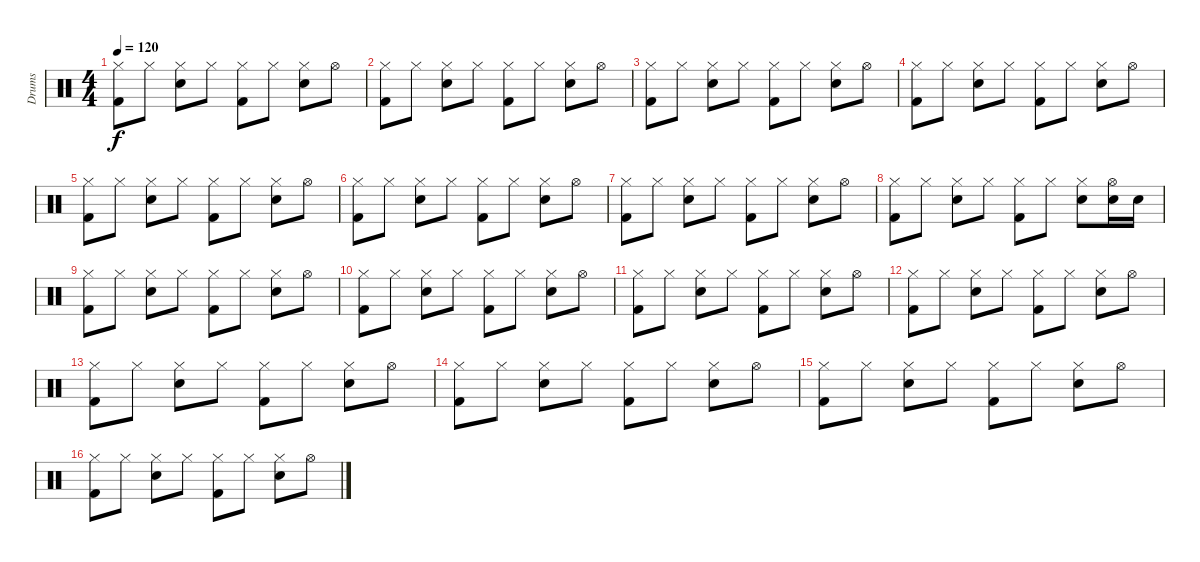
\track ("Drums" "Drums") {instrument percussion}
\staff {score}
\articulation defaults
\ts (4 4)
\tempo 120
\clef neutral
\ks c
("Hi-Hat (closed)" "Kick (hit) 2").8{dy f} "Hi-Hat (closed)".8 ("Hi-Hat (closed)" "Electric Snare (hit)").8 "Hi-Hat (closed)".8 ("Hi-Hat (closed)" "Kick (hit) 2").8 "Hi-Hat (closed)".8 ("Hi-Hat (closed)" "Electric Snare (hit)").8 "Hi-Hat (open)".8 |
("Hi-Hat (closed)" "Kick (hit) 2").8 "Hi-Hat (closed)".8 ("Hi-Hat (closed)" "Electric Snare (hit)").8 "Hi-Hat (closed)".8 ("Hi-Hat (closed)" "Kick (hit) 2").8 "Hi-Hat (closed)".8 ("Hi-Hat (closed)" "Electric Snare (hit)").8 "Hi-Hat (open)".8 |
("Hi-Hat (closed)" "Kick (hit) 2").8 "Hi-Hat (closed)".8 ("Hi-Hat (closed)" "Electric Snare (hit)").8 "Hi-Hat (closed)".8 ("Hi-Hat (closed)" "Kick (hit) 2").8 "Hi-Hat (closed)".8 ("Hi-Hat (closed)" "Electric Snare (hit)").8 "Hi-Hat (open)".8 |
("Hi-Hat (closed)" "Kick (hit) 2").8 "Hi-Hat (closed)".8 ("Hi-Hat (closed)" "Electric Snare (hit)").8 "Hi-Hat (closed)".8 ("Hi-Hat (closed)" "Kick (hit) 2").8 "Hi-Hat (closed)".8 ("Hi-Hat (closed)" "Electric Snare (hit)").8 "Hi-Hat (open)".8 |
("Hi-Hat (closed)" "Kick (hit) 2").8 "Hi-Hat (closed)".8 ("Hi-Hat (closed)" "Electric Snare (hit)").8 "Hi-Hat (closed)".8 ("Hi-Hat (closed)" "Kick (hit) 2").8 "Hi-Hat (closed)".8 ("Hi-Hat (closed)" "Electric Snare (hit)").8 "Hi-Hat (open)".8 |
("Hi-Hat (closed)" "Kick (hit) 2").8 "Hi-Hat (closed)".8 ("Hi-Hat (closed)" "Electric Snare (hit)").8 "Hi-Hat (closed)".8 ("Hi-Hat (closed)" "Kick (hit) 2").8 "Hi-Hat (closed)".8 ("Hi-Hat (closed)" "Electric Snare (hit)").8 "Hi-Hat (open)".8 |
("Hi-Hat (closed)" "Kick (hit) 2").8 "Hi-Hat (closed)".8 ("Hi-Hat (closed)" "Electric Snare (hit)").8 "Hi-Hat (closed)".8 ("Hi-Hat (closed)" "Kick (hit) 2").8 "Hi-Hat (closed)".8 ("Hi-Hat (closed)" "Electric Snare (hit)").8 "Hi-Hat (open)".8 |
("Hi-Hat (closed)" "Kick (hit) 2").8 "Hi-Hat (closed)".8 ("Hi-Hat (closed)" "Electric Snare (hit)").8 "Hi-Hat (closed)".8 ("Hi-Hat (closed)" "Kick (hit) 2").8 "Hi-Hat (closed)".8 ("Hi-Hat (closed)" "Electric Snare (hit)").8 ("Electric Snare (hit)" "Hi-Hat (open)").16 "Electric Snare (hit)".16 |
("Hi-Hat (closed)" "Kick (hit) 2").8 "Hi-Hat (closed)".8 ("Hi-Hat (closed)" "Electric Snare (hit)").8 "Hi-Hat (closed)".8 ("Hi-Hat (closed)" "Kick (hit) 2").8 "Hi-Hat (closed)".8 ("Hi-Hat (closed)" "Electric Snare (hit)").8 "Hi-Hat (open)".8 |
("Hi-Hat (closed)" "Kick (hit) 2").8 "Hi-Hat (closed)".8 ("Hi-Hat (closed)" "Electric Snare (hit)").8 "Hi-Hat (closed)".8 ("Hi-Hat (closed)" "Kick (hit) 2").8 "Hi-Hat (closed)".8 ("Hi-Hat (closed)" "Electric Snare (hit)").8 "Hi-Hat (open)".8 |
("Hi-Hat (closed)" "Kick (hit) 2").8 "Hi-Hat (closed)".8 ("Hi-Hat (closed)" "Electric Snare (hit)").8 "Hi-Hat (closed)".8 ("Hi-Hat (closed)" "Kick (hit) 2").8 "Hi-Hat (closed)".8 ("Hi-Hat (closed)" "Electric Snare (hit)").8 "Hi-Hat (open)".8 |
("Hi-Hat (closed)" "Kick (hit) 2").8 "Hi-Hat (closed)".8 ("Hi-Hat (closed)" "Electric Snare (hit)").8 "Hi-Hat (closed)".8 ("Hi-Hat (closed)" "Kick (hit) 2").8 "Hi-Hat (closed)".8 ("Hi-Hat (closed)" "Electric Snare (hit)").8 "Hi-Hat (open)".8 |
("Hi-Hat (closed)" "Kick (hit) 2").8 "Hi-Hat (closed)".8 ("Hi-Hat (closed)" "Electric Snare (hit)").8 "Hi-Hat (closed)".8 ("Hi-Hat (closed)" "Kick (hit) 2").8 "Hi-Hat (closed)".8 ("Hi-Hat (closed)" "Electric Snare (hit)").8 "Hi-Hat (open)".8 |
("Hi-Hat (closed)" "Kick (hit) 2").8 "Hi-Hat (closed)".8 ("Hi-Hat (closed)" "Electric Snare (hit)").8 "Hi-Hat (closed)".8 ("Hi-Hat (closed)" "Kick (hit) 2").8 "Hi-Hat (closed)".8 ("Hi-Hat (closed)" "Electric Snare (hit)").8 "Hi-Hat (open)".8 |
("Hi-Hat (closed)" "Kick (hit) 2").8 "Hi-Hat (closed)".8 ("Hi-Hat (closed)" "Electric Snare (hit)").8 "Hi-Hat (closed)".8 ("Hi-Hat (closed)" "Kick (hit) 2").8 "Hi-Hat (closed)".8 ("Hi-Hat (closed)" "Electric Snare (hit)").8 "Hi-Hat (open)".8 |
("Hi-Hat (closed)" "Kick (hit) 2").8 "Hi-Hat (closed)".8 ("Hi-Hat (closed)" "Electric Snare (hit)").8 "Hi-Hat (closed)".8 ("Hi-Hat (closed)" "Kick (hit) 2").8 "Hi-Hat (closed)".8 ("Hi-Hat (closed)" "Electric Snare (hit)").8 "Hi-Hat (open)".8
